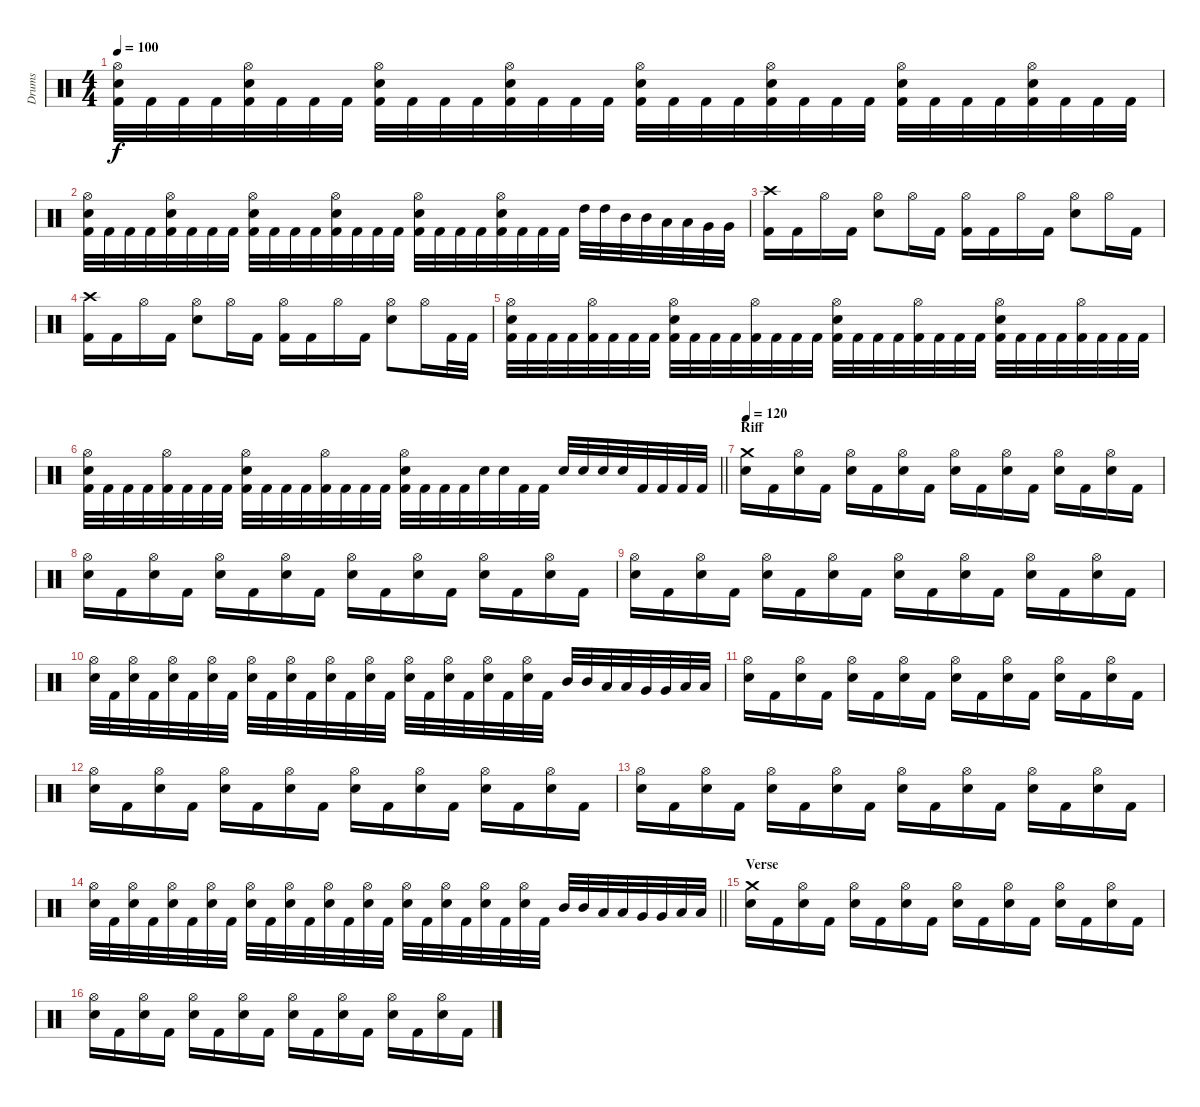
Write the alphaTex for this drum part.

\track ("Drums" "Drums") {instrument percussion}
\staff {score}
\articulation defaults
\ts (4 4)
\tempo 100
\clef neutral
\ks c
("Hi-Hat (open)" "Electric Snare (hit)" "Kick (hit) 2").32{dy f} "Kick (hit) 2".32 "Kick (hit) 2".32 "Kick (hit) 2".32 ("Hi-Hat (open)" "Electric Snare (hit)" "Kick (hit) 2").32 "Kick (hit) 2".32 "Kick (hit) 2".32 "Kick (hit) 2".32 ("Hi-Hat (open)" "Electric Snare (hit)" "Kick (hit) 2").32 "Kick (hit) 2".32 "Kick (hit) 2".32 "Kick (hit) 2".32 ("Hi-Hat (open)" "Electric Snare (hit)" "Kick (hit) 2").32 "Kick (hit) 2".32 "Kick (hit) 2".32 "Kick (hit) 2".32 ("Hi-Hat (open)" "Electric Snare (hit)" "Kick (hit) 2").32 "Kick (hit) 2".32 "Kick (hit) 2".32 "Kick (hit) 2".32 ("Hi-Hat (open)" "Electric Snare (hit)" "Kick (hit) 2").32 "Kick (hit) 2".32 "Kick (hit) 2".32 "Kick (hit) 2".32 ("Hi-Hat (open)" "Electric Snare (hit)" "Kick (hit) 2").32 "Kick (hit) 2".32 "Kick (hit) 2".32 "Kick (hit) 2".32 ("Hi-Hat (open)" "Electric Snare (hit)" "Kick (hit) 2").32 "Kick (hit) 2".32 "Kick (hit) 2".32 "Kick (hit) 2".32 |
("Hi-Hat (open)" "Electric Snare (hit)" "Kick (hit) 2").32 "Kick (hit) 2".32 "Kick (hit) 2".32 "Kick (hit) 2".32 ("Hi-Hat (open)" "Electric Snare (hit)" "Kick (hit) 2").32 "Kick (hit) 2".32 "Kick (hit) 2".32 "Kick (hit) 2".32 ("Hi-Hat (open)" "Electric Snare (hit)" "Kick (hit) 2").32 "Kick (hit) 2".32 "Kick (hit) 2".32 "Kick (hit) 2".32 ("Hi-Hat (open)" "Electric Snare (hit)" "Kick (hit) 2").32 "Kick (hit) 2".32 "Kick (hit) 2".32 "Kick (hit) 2".32 ("Hi-Hat (open)" "Electric Snare (hit)" "Kick (hit) 2").32 "Kick (hit) 2".32 "Kick (hit) 2".32 "Kick (hit) 2".32 ("Hi-Hat (open)" "Electric Snare (hit)" "Kick (hit) 2").32 "Kick (hit) 2".32 "Kick (hit) 2".32 "Kick (hit) 2".32 "High Tom (hit)".32 "High Tom (hit)".32 "Mid Tom (hit)".32 "Mid Tom (hit)".32 "Low Tom (hit)".32 "Low Tom (hit)".32 "Very Low Tom (hit)".32 "Very Low Tom (hit)".32 |
("Crash high (hit)" "Kick (hit) 2").16 "Kick (hit) 2".16 "Hi-Hat (open)".16 "Kick (hit) 2".16 ("Hi-Hat (open)" "Electric Snare (hit)").8 "Hi-Hat (open)".16 "Kick (hit) 2".16 ("Hi-Hat (open)" "Kick (hit) 2").16 "Kick (hit) 2".16 "Hi-Hat (open)".16 "Kick (hit) 2".16 ("Hi-Hat (open)" "Electric Snare (hit)").8 "Hi-Hat (open)".16 "Kick (hit) 2".16 |
("Crash high (hit)" "Kick (hit) 2").16 "Kick (hit) 2".16 "Hi-Hat (open)".16 "Kick (hit) 2".16 ("Hi-Hat (open)" "Electric Snare (hit)").8 "Hi-Hat (open)".16 "Kick (hit) 2".16 ("Hi-Hat (open)" "Kick (hit) 2").16 "Kick (hit) 2".16 "Hi-Hat (open)".16 "Kick (hit) 2".16 ("Hi-Hat (open)" "Electric Snare (hit)").8 "Hi-Hat (open)".16 "Kick (hit) 2".32 "Kick (hit) 2".32 |
("Hi-Hat (open)" "Electric Snare (hit)" "Kick (hit) 2").32 "Kick (hit) 2".32 "Kick (hit) 2".32 "Kick (hit) 2".32 ("Hi-Hat (open)" "Kick (hit) 2").32 "Kick (hit) 2".32 "Kick (hit) 2".32 "Kick (hit) 2".32 ("Hi-Hat (open)" "Electric Snare (hit)" "Kick (hit) 2").32 "Kick (hit) 2".32 "Kick (hit) 2".32 "Kick (hit) 2".32 ("Hi-Hat (open)" "Kick (hit) 2").32 "Kick (hit) 2".32 "Kick (hit) 2".32 "Kick (hit) 2".32 ("Hi-Hat (open)" "Electric Snare (hit)" "Kick (hit) 2").32 "Kick (hit) 2".32 "Kick (hit) 2".32 "Kick (hit) 2".32 ("Hi-Hat (open)" "Kick (hit) 2").32 "Kick (hit) 2".32 "Kick (hit) 2".32 "Kick (hit) 2".32 ("Hi-Hat (open)" "Electric Snare (hit)" "Kick (hit) 2").32 "Kick (hit) 2".32 "Kick (hit) 2".32 "Kick (hit) 2".32 ("Hi-Hat (open)" "Kick (hit) 2").32 "Kick (hit) 2".32 "Kick (hit) 2".32 "Kick (hit) 2".32 |
\barLineRight lightlight
("Hi-Hat (open)" "Electric Snare (hit)" "Kick (hit) 2").32 "Kick (hit) 2".32 "Kick (hit) 2".32 "Kick (hit) 2".32 ("Hi-Hat (open)" "Kick (hit) 2").32 "Kick (hit) 2".32 "Kick (hit) 2".32 "Kick (hit) 2".32 ("Hi-Hat (open)" "Electric Snare (hit)" "Kick (hit) 2").32 "Kick (hit) 2".32 "Kick (hit) 2".32 "Kick (hit) 2".32 ("Hi-Hat (open)" "Kick (hit) 2").32 "Kick (hit) 2".32 "Kick (hit) 2".32 "Kick (hit) 2".32 ("Hi-Hat (open)" "Electric Snare (hit)" "Kick (hit) 2").32 "Kick (hit) 2".32 "Kick (hit) 2".32 "Kick (hit) 2".32 "Electric Snare (hit)".32 "Electric Snare (hit)".32 "Kick (hit) 2".32 "Kick (hit) 2".32 "Electric Snare (hit)".32 "Electric Snare (hit)".32 "Electric Snare (hit)".32 "Electric Snare (hit)".32 "Kick (hit) 2".32 "Kick (hit) 2".32 "Kick (hit) 2".32 "Kick (hit) 2".32 |
\section ("" "Riff")
\tempo 120
("Crash medium (hit)" "Electric Snare (hit)").16 "Kick (hit) 2".16 ("Hi-Hat (open)" "Electric Snare (hit)").16 "Kick (hit) 2".16 ("Hi-Hat (open)" "Electric Snare (hit)").16 "Kick (hit) 2".16 ("Hi-Hat (open)" "Electric Snare (hit)").16 "Kick (hit) 2".16 ("Hi-Hat (open)" "Electric Snare (hit)").16 "Kick (hit) 2".16 ("Hi-Hat (open)" "Electric Snare (hit)").16 "Kick (hit) 2".16 ("Hi-Hat (open)" "Electric Snare (hit)").16 "Kick (hit) 2".16 ("Hi-Hat (open)" "Electric Snare (hit)").16 "Kick (hit) 2".16 |
("Hi-Hat (open)" "Electric Snare (hit)").16 "Kick (hit) 2".16 ("Hi-Hat (open)" "Electric Snare (hit)").16 "Kick (hit) 2".16 ("Hi-Hat (open)" "Electric Snare (hit)").16 "Kick (hit) 2".16 ("Hi-Hat (open)" "Electric Snare (hit)").16 "Kick (hit) 2".16 ("Hi-Hat (open)" "Electric Snare (hit)").16 "Kick (hit) 2".16 ("Hi-Hat (open)" "Electric Snare (hit)").16 "Kick (hit) 2".16 ("Hi-Hat (open)" "Electric Snare (hit)").16 "Kick (hit) 2".16 ("Hi-Hat (open)" "Electric Snare (hit)").16 "Kick (hit) 2".16 |
("Hi-Hat (open)" "Electric Snare (hit)").16 "Kick (hit) 2".16 ("Hi-Hat (open)" "Electric Snare (hit)").16 "Kick (hit) 2".16 ("Hi-Hat (open)" "Electric Snare (hit)").16 "Kick (hit) 2".16 ("Hi-Hat (open)" "Electric Snare (hit)").16 "Kick (hit) 2".16 ("Hi-Hat (open)" "Electric Snare (hit)").16 "Kick (hit) 2".16 ("Hi-Hat (open)" "Electric Snare (hit)").16 "Kick (hit) 2".16 ("Hi-Hat (open)" "Electric Snare (hit)").16 "Kick (hit) 2".16 ("Hi-Hat (open)" "Electric Snare (hit)").16 "Kick (hit) 2".16 |
("Hi-Hat (open)" "Electric Snare (hit)").32 "Kick (hit) 2".32 ("Hi-Hat (open)" "Electric Snare (hit)").32 "Kick (hit) 2".32 ("Hi-Hat (open)" "Electric Snare (hit)").32 "Kick (hit) 2".32 ("Hi-Hat (open)" "Electric Snare (hit)").32 "Kick (hit) 2".32 ("Hi-Hat (open)" "Electric Snare (hit)").32 "Kick (hit) 2".32 ("Hi-Hat (open)" "Electric Snare (hit)").32 "Kick (hit) 2".32 ("Hi-Hat (open)" "Electric Snare (hit)").32 "Kick (hit) 2".32 ("Hi-Hat (open)" "Electric Snare (hit)").32 "Kick (hit) 2".32 ("Hi-Hat (open)" "Electric Snare (hit)").32 "Kick (hit) 2".32 ("Hi-Hat (open)" "Electric Snare (hit)").32 "Kick (hit) 2".32 ("Hi-Hat (open)" "Electric Snare (hit)").32 "Kick (hit) 2".32 ("Hi-Hat (open)" "Electric Snare (hit)").32 "Kick (hit) 2".32 "Mid Tom (hit)".32 "Mid Tom (hit)".32 "Low Tom (hit)".32 "Low Tom (hit)".32 "Very Low Tom (hit)".32 "Very Low Tom (hit)".32 "Low Floor Tom (hit)".32 "Low Floor Tom (hit)".32 |
("Hi-Hat (open)" "Electric Snare (hit)").16 "Kick (hit) 2".16 ("Hi-Hat (open)" "Electric Snare (hit)").16 "Kick (hit) 2".16 ("Hi-Hat (open)" "Electric Snare (hit)").16 "Kick (hit) 2".16 ("Hi-Hat (open)" "Electric Snare (hit)").16 "Kick (hit) 2".16 ("Hi-Hat (open)" "Electric Snare (hit)").16 "Kick (hit) 2".16 ("Hi-Hat (open)" "Electric Snare (hit)").16 "Kick (hit) 2".16 ("Hi-Hat (open)" "Electric Snare (hit)").16 "Kick (hit) 2".16 ("Hi-Hat (open)" "Electric Snare (hit)").16 "Kick (hit) 2".16 |
("Hi-Hat (open)" "Electric Snare (hit)").16 "Kick (hit) 2".16 ("Hi-Hat (open)" "Electric Snare (hit)").16 "Kick (hit) 2".16 ("Hi-Hat (open)" "Electric Snare (hit)").16 "Kick (hit) 2".16 ("Hi-Hat (open)" "Electric Snare (hit)").16 "Kick (hit) 2".16 ("Hi-Hat (open)" "Electric Snare (hit)").16 "Kick (hit) 2".16 ("Hi-Hat (open)" "Electric Snare (hit)").16 "Kick (hit) 2".16 ("Hi-Hat (open)" "Electric Snare (hit)").16 "Kick (hit) 2".16 ("Hi-Hat (open)" "Electric Snare (hit)").16 "Kick (hit) 2".16 |
("Hi-Hat (open)" "Electric Snare (hit)").16 "Kick (hit) 2".16 ("Hi-Hat (open)" "Electric Snare (hit)").16 "Kick (hit) 2".16 ("Hi-Hat (open)" "Electric Snare (hit)").16 "Kick (hit) 2".16 ("Hi-Hat (open)" "Electric Snare (hit)").16 "Kick (hit) 2".16 ("Hi-Hat (open)" "Electric Snare (hit)").16 "Kick (hit) 2".16 ("Hi-Hat (open)" "Electric Snare (hit)").16 "Kick (hit) 2".16 ("Hi-Hat (open)" "Electric Snare (hit)").16 "Kick (hit) 2".16 ("Hi-Hat (open)" "Electric Snare (hit)").16 "Kick (hit) 2".16 |
\barLineRight lightlight
("Hi-Hat (open)" "Electric Snare (hit)").32 "Kick (hit) 2".32 ("Hi-Hat (open)" "Electric Snare (hit)").32 "Kick (hit) 2".32 ("Hi-Hat (open)" "Electric Snare (hit)").32 "Kick (hit) 2".32 ("Hi-Hat (open)" "Electric Snare (hit)").32 "Kick (hit) 2".32 ("Hi-Hat (open)" "Electric Snare (hit)").32 "Kick (hit) 2".32 ("Hi-Hat (open)" "Electric Snare (hit)").32 "Kick (hit) 2".32 ("Hi-Hat (open)" "Electric Snare (hit)").32 "Kick (hit) 2".32 ("Hi-Hat (open)" "Electric Snare (hit)").32 "Kick (hit) 2".32 ("Hi-Hat (open)" "Electric Snare (hit)").32 "Kick (hit) 2".32 ("Hi-Hat (open)" "Electric Snare (hit)").32 "Kick (hit) 2".32 ("Hi-Hat (open)" "Electric Snare (hit)").32 "Kick (hit) 2".32 ("Hi-Hat (open)" "Electric Snare (hit)").32 "Kick (hit) 2".32 "Mid Tom (hit)".32 "Mid Tom (hit)".32 "Low Tom (hit)".32 "Low Tom (hit)".32 "Very Low Tom (hit)".32 "Very Low Tom (hit)".32 "Low Floor Tom (hit)".32 "Low Floor Tom (hit)".32 |
\section ("" "Verse")
("Crash medium (hit)" "Electric Snare (hit)").16 "Kick (hit) 2".16 ("Hi-Hat (open)" "Electric Snare (hit)").16 "Kick (hit) 2".16 ("Hi-Hat (open)" "Electric Snare (hit)").16 "Kick (hit) 2".16 ("Hi-Hat (open)" "Electric Snare (hit)").16 "Kick (hit) 2".16 ("Hi-Hat (open)" "Electric Snare (hit)").16 "Kick (hit) 2".16 ("Hi-Hat (open)" "Electric Snare (hit)").16 "Kick (hit) 2".16 ("Hi-Hat (open)" "Electric Snare (hit)").16 "Kick (hit) 2".16 ("Hi-Hat (open)" "Electric Snare (hit)").16 "Kick (hit) 2".16 |
("Hi-Hat (open)" "Electric Snare (hit)").16 "Kick (hit) 2".16 ("Hi-Hat (open)" "Electric Snare (hit)").16 "Kick (hit) 2".16 ("Hi-Hat (open)" "Electric Snare (hit)").16 "Kick (hit) 2".16 ("Hi-Hat (open)" "Electric Snare (hit)").16 "Kick (hit) 2".16 ("Hi-Hat (open)" "Electric Snare (hit)").16 "Kick (hit) 2".16 ("Hi-Hat (open)" "Electric Snare (hit)").16 "Kick (hit) 2".16 ("Hi-Hat (open)" "Electric Snare (hit)").16 "Kick (hit) 2".16 ("Hi-Hat (open)" "Electric Snare (hit)").16 "Kick (hit) 2".16
